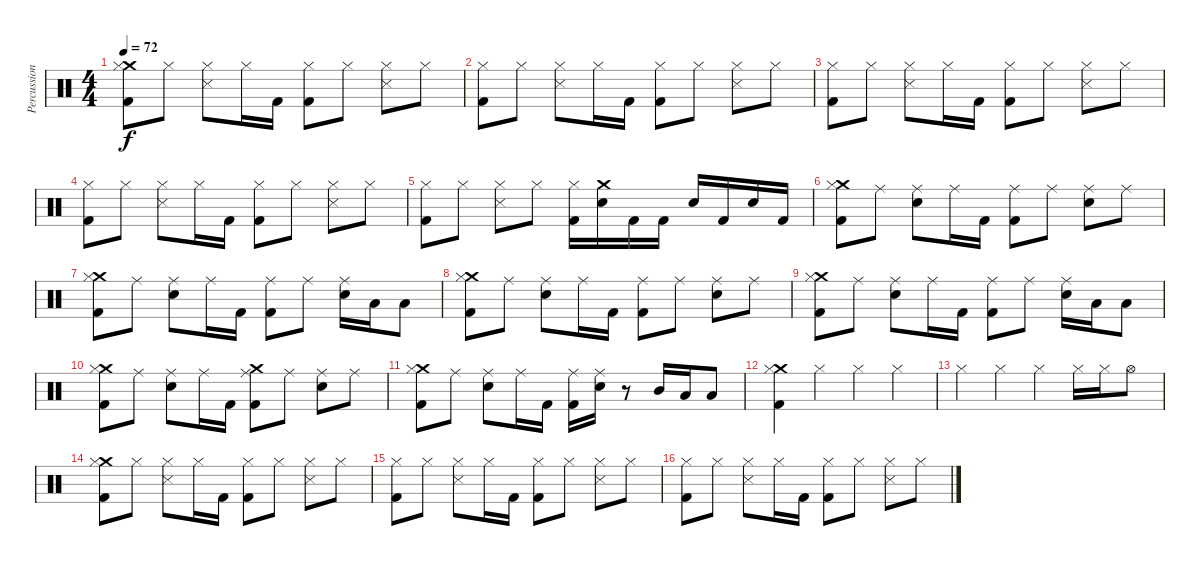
\track ("Percussion" "Percussion") {instrument percussion}
\staff {score}
\articulation defaults
\ts (4 4)
\tempo 72
\clef neutral
\ks c
("Crash medium (hit)" "Hi-Hat (closed)" "Kick (hit) 2").8{dy f} "Hi-Hat (closed)".8 ("Hi-Hat (closed)" "Metronome (hit)").8 "Hi-Hat (closed)".16 "Kick (hit) 2".16 ("Hi-Hat (closed)" "Kick (hit) 2").8 "Hi-Hat (closed)".8 ("Hi-Hat (closed)" "Metronome (hit)").8 "Hi-Hat (closed)".8 |
("Hi-Hat (closed)" "Kick (hit) 2").8 "Hi-Hat (closed)".8 ("Hi-Hat (closed)" "Metronome (hit)").8 "Hi-Hat (closed)".16 "Kick (hit) 2".16 ("Hi-Hat (closed)" "Kick (hit) 2").8 "Hi-Hat (closed)".8 ("Hi-Hat (closed)" "Metronome (hit)").8 "Hi-Hat (closed)".8 |
("Hi-Hat (closed)" "Kick (hit) 2").8 "Hi-Hat (closed)".8 ("Hi-Hat (closed)" "Metronome (hit)").8 "Hi-Hat (closed)".16 "Kick (hit) 2".16 ("Hi-Hat (closed)" "Kick (hit) 2").8 "Hi-Hat (closed)".8 ("Hi-Hat (closed)" "Metronome (hit)").8 "Hi-Hat (closed)".8 |
("Hi-Hat (closed)" "Kick (hit) 2").8 "Hi-Hat (closed)".8 ("Hi-Hat (closed)" "Metronome (hit)").8 "Hi-Hat (closed)".16 "Kick (hit) 2".16 ("Hi-Hat (closed)" "Kick (hit) 2").8 "Hi-Hat (closed)".8 ("Hi-Hat (closed)" "Metronome (hit)").8 "Hi-Hat (closed)".8 |
("Hi-Hat (closed)" "Kick (hit) 2").8 "Hi-Hat (closed)".8 ("Hi-Hat (closed)" "Metronome (hit)").8 "Hi-Hat (closed)".8 ("Hi-Hat (closed)" "Kick (hit) 2").16 ("Crash medium (hit)" "Snare (hit) 2").16 "Kick (hit) 2".16 "Kick (hit) 2".16 "Snare (hit) 2".16 "Kick (hit) 2".16 "Snare (hit) 2".16 "Kick (hit) 2".16 |
("Crash medium (hit)" "Hi-Hat (closed)" "Kick (hit) 2").8 "Ride (middle)".8 ("Ride (middle)" "Snare (hit) 2").8 "Ride (middle)".16 "Kick (hit) 2".16 ("Ride (middle)" "Kick (hit) 2").8 "Ride (middle)".8 ("Ride (middle)" "Snare (hit) 2").8 "Ride (middle)".8 |
("Crash medium (hit)" "Hi-Hat (closed)" "Kick (hit) 2").8 "Ride (middle)".8 ("Ride (middle)" "Snare (hit) 2").8 "Ride (middle)".16 "Kick (hit) 2".16 ("Ride (middle)" "Kick (hit) 2").8 "Ride (middle)".8 ("Ride (middle)" "Snare (hit) 2").16 "Low Tom (hit)".16 "Low Floor Tom (hit)".8 |
("Crash medium (hit)" "Hi-Hat (closed)" "Kick (hit) 2").8 "Ride (middle)".8 ("Ride (middle)" "Snare (hit) 2").8 "Ride (middle)".16 "Kick (hit) 2".16 ("Ride (middle)" "Kick (hit) 2").8 "Ride (middle)".8 ("Ride (middle)" "Snare (hit) 2").8 "Ride (middle)".8 |
("Crash medium (hit)" "Hi-Hat (closed)" "Kick (hit) 2").8 "Ride (middle)".8 ("Ride (middle)" "Snare (hit) 2").8 "Ride (middle)".16 "Kick (hit) 2".16 ("Ride (middle)" "Kick (hit) 2").8 "Ride (middle)".8 ("Ride (middle)" "Snare (hit) 2").16 "Low Tom (hit)".16 "Low Floor Tom (hit)".8 |
("Crash medium (hit)" "Hi-Hat (closed)" "Kick (hit) 2").8 "Ride (middle)".8 ("Ride (middle)" "Snare (hit) 2").8 "Ride (middle)".16 "Kick (hit) 2".16 ("Crash medium (hit)" "Ride (middle)" "Kick (hit) 2").8 "Ride (middle)".8 ("Ride (middle)" "Snare (hit) 2").8 "Ride (middle)".8 |
("Crash medium (hit)" "Hi-Hat (closed)" "Kick (hit) 2").8 "Ride (middle)".8 ("Ride (middle)" "Snare (hit) 2").8 "Ride (middle)".16 "Kick (hit) 2".16 ("Ride (middle)" "Kick (hit) 2").16 ("Ride (middle)" "Snare (hit) 2").16 r.8 "Mid Tom (hit)".16 "Low Tom (hit)".16 "Low Floor Tom (hit)".8 |
("Crash medium (hit)" "Hi-Hat (closed)" "Kick (hit) 2").4 "Hi-Hat (closed)".4 "Hi-Hat (closed)".4 "Hi-Hat (closed)".4 |
"Hi-Hat (closed)".4 "Hi-Hat (closed)".4 "Hi-Hat (closed)".4 "Hi-Hat (closed)".16 "Hi-Hat (closed)".16 "Hi-Hat (open)".8 |
("Crash medium (hit)" "Hi-Hat (closed)" "Kick (hit) 2").8 "Hi-Hat (closed)".8 ("Hi-Hat (closed)" "Metronome (hit)").8 "Hi-Hat (closed)".16 "Kick (hit) 2".16 ("Hi-Hat (closed)" "Kick (hit) 2").8 "Hi-Hat (closed)".8 ("Hi-Hat (closed)" "Metronome (hit)").8 "Hi-Hat (closed)".8 |
("Hi-Hat (closed)" "Kick (hit) 2").8 "Hi-Hat (closed)".8 ("Hi-Hat (closed)" "Metronome (hit)").8 "Hi-Hat (closed)".16 "Kick (hit) 2".16 ("Hi-Hat (closed)" "Kick (hit) 2").8 "Hi-Hat (closed)".8 ("Hi-Hat (closed)" "Metronome (hit)").8 "Hi-Hat (closed)".8 |
("Hi-Hat (closed)" "Kick (hit) 2").8 "Hi-Hat (closed)".8 ("Hi-Hat (closed)" "Metronome (hit)").8 "Hi-Hat (closed)".16 "Kick (hit) 2".16 ("Hi-Hat (closed)" "Kick (hit) 2").8 "Hi-Hat (closed)".8 ("Hi-Hat (closed)" "Metronome (hit)").8 "Hi-Hat (closed)".8
